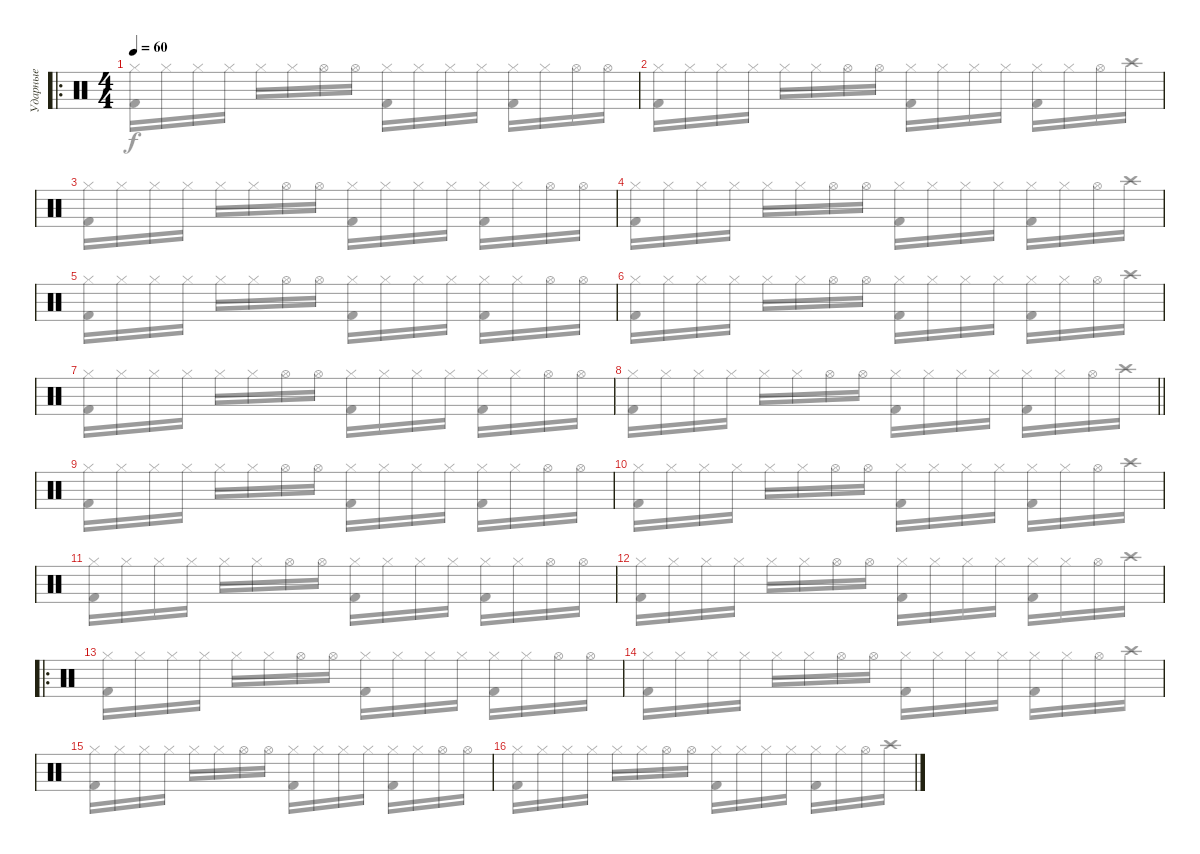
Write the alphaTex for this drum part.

\track ("Ударные" "Ударные") {instrument percussion}
\staff {score}
\articulation defaults
\voice
\ro
\ts (4 4)
\tempo 60
\clef neutral
\ks c
|
|
|
|
|
|
|
\barLineRight lightlight
|
|
|
|
|
\ro
|
|
|
\voice
\clef neutral
\ks c
("Hi-Hat (closed)" "Kick (hit) 2").16{dy f} "Hi-Hat (closed)".16 "Hi-Hat (closed)".16 "Hi-Hat (closed)".16 "Hi-Hat (closed)".16 "Hi-Hat (closed)".16 "Hi-Hat (open)".16 "Hi-Hat (open)".16 ("Hi-Hat (closed)" "Kick (hit) 2").16 "Hi-Hat (closed)".16 "Hi-Hat (closed)".16 "Hi-Hat (closed)".16 ("Hi-Hat (closed)" "Kick (hit) 2").16 "Hi-Hat (closed)".16 "Hi-Hat (open)".16 "Hi-Hat (open)".16 |
("Hi-Hat (closed)" "Kick (hit) 2").16 "Hi-Hat (closed)".16 "Hi-Hat (closed)".16 "Hi-Hat (closed)".16 "Hi-Hat (closed)".16 "Hi-Hat (closed)".16 "Hi-Hat (open)".16 "Hi-Hat (open)".16 ("Hi-Hat (closed)" "Kick (hit) 2").16 "Hi-Hat (closed)".16 "Hi-Hat (closed)".16 "Hi-Hat (closed)".16 ("Hi-Hat (closed)" "Kick (hit) 2").16 "Hi-Hat (closed)".16 "Hi-Hat (open)".16 "Crash high (hit)".16 |
("Hi-Hat (closed)" "Kick (hit) 2").16 "Hi-Hat (closed)".16 "Hi-Hat (closed)".16 "Hi-Hat (closed)".16 "Hi-Hat (closed)".16 "Hi-Hat (closed)".16 "Hi-Hat (open)".16 "Hi-Hat (open)".16 ("Hi-Hat (closed)" "Kick (hit) 2").16 "Hi-Hat (closed)".16 "Hi-Hat (closed)".16 "Hi-Hat (closed)".16 ("Hi-Hat (closed)" "Kick (hit) 2").16 "Hi-Hat (closed)".16 "Hi-Hat (open)".16 "Hi-Hat (open)".16 |
("Hi-Hat (closed)" "Kick (hit) 2").16 "Hi-Hat (closed)".16 "Hi-Hat (closed)".16 "Hi-Hat (closed)".16 "Hi-Hat (closed)".16 "Hi-Hat (closed)".16 "Hi-Hat (open)".16 "Hi-Hat (open)".16 ("Hi-Hat (closed)" "Kick (hit) 2").16 "Hi-Hat (closed)".16 "Hi-Hat (closed)".16 "Hi-Hat (closed)".16 ("Hi-Hat (closed)" "Kick (hit) 2").16 "Hi-Hat (closed)".16 "Hi-Hat (open)".16 "Crash high (hit)".16 |
("Hi-Hat (closed)" "Kick (hit) 2").16 "Hi-Hat (closed)".16 "Hi-Hat (closed)".16 "Hi-Hat (closed)".16 "Hi-Hat (closed)".16 "Hi-Hat (closed)".16 "Hi-Hat (open)".16 "Hi-Hat (open)".16 ("Hi-Hat (closed)" "Kick (hit) 2").16 "Hi-Hat (closed)".16 "Hi-Hat (closed)".16 "Hi-Hat (closed)".16 ("Hi-Hat (closed)" "Kick (hit) 2").16 "Hi-Hat (closed)".16 "Hi-Hat (open)".16 "Hi-Hat (open)".16 |
("Hi-Hat (closed)" "Kick (hit) 2").16 "Hi-Hat (closed)".16 "Hi-Hat (closed)".16 "Hi-Hat (closed)".16 "Hi-Hat (closed)".16 "Hi-Hat (closed)".16 "Hi-Hat (open)".16 "Hi-Hat (open)".16 ("Hi-Hat (closed)" "Kick (hit) 2").16 "Hi-Hat (closed)".16 "Hi-Hat (closed)".16 "Hi-Hat (closed)".16 ("Hi-Hat (closed)" "Kick (hit) 2").16 "Hi-Hat (closed)".16 "Hi-Hat (open)".16 "Crash high (hit)".16 |
("Hi-Hat (closed)" "Kick (hit) 2").16 "Hi-Hat (closed)".16 "Hi-Hat (closed)".16 "Hi-Hat (closed)".16 "Hi-Hat (closed)".16 "Hi-Hat (closed)".16 "Hi-Hat (open)".16 "Hi-Hat (open)".16 ("Hi-Hat (closed)" "Kick (hit) 2").16 "Hi-Hat (closed)".16 "Hi-Hat (closed)".16 "Hi-Hat (closed)".16 ("Hi-Hat (closed)" "Kick (hit) 2").16 "Hi-Hat (closed)".16 "Hi-Hat (open)".16 "Hi-Hat (open)".16 |
\barLineRight lightlight
("Hi-Hat (closed)" "Kick (hit) 2").16 "Hi-Hat (closed)".16 "Hi-Hat (closed)".16 "Hi-Hat (closed)".16 "Hi-Hat (closed)".16 "Hi-Hat (closed)".16 "Hi-Hat (open)".16 "Hi-Hat (open)".16 ("Hi-Hat (closed)" "Kick (hit) 2").16 "Hi-Hat (closed)".16 "Hi-Hat (closed)".16 "Hi-Hat (closed)".16 ("Hi-Hat (closed)" "Kick (hit) 2").16 "Hi-Hat (closed)".16 "Hi-Hat (open)".16 "Crash high (hit)".16 |
("Hi-Hat (closed)" "Kick (hit) 2").16 "Hi-Hat (closed)".16 "Hi-Hat (closed)".16 "Hi-Hat (closed)".16 "Hi-Hat (closed)".16 "Hi-Hat (closed)".16 "Hi-Hat (open)".16 "Hi-Hat (open)".16 ("Hi-Hat (closed)" "Kick (hit) 2").16 "Hi-Hat (closed)".16 "Hi-Hat (closed)".16 "Hi-Hat (closed)".16 ("Hi-Hat (closed)" "Kick (hit) 2").16 "Hi-Hat (closed)".16 "Hi-Hat (open)".16 "Hi-Hat (open)".16 |
("Hi-Hat (closed)" "Kick (hit) 2").16 "Hi-Hat (closed)".16 "Hi-Hat (closed)".16 "Hi-Hat (closed)".16 "Hi-Hat (closed)".16 "Hi-Hat (closed)".16 "Hi-Hat (open)".16 "Hi-Hat (open)".16 ("Hi-Hat (closed)" "Kick (hit) 2").16 "Hi-Hat (closed)".16 "Hi-Hat (closed)".16 "Hi-Hat (closed)".16 ("Hi-Hat (closed)" "Kick (hit) 2").16 "Hi-Hat (closed)".16 "Hi-Hat (open)".16 "Crash high (hit)".16 |
("Hi-Hat (closed)" "Kick (hit) 2").16 "Hi-Hat (closed)".16 "Hi-Hat (closed)".16 "Hi-Hat (closed)".16 "Hi-Hat (closed)".16 "Hi-Hat (closed)".16 "Hi-Hat (open)".16 "Hi-Hat (open)".16 ("Hi-Hat (closed)" "Kick (hit) 2").16 "Hi-Hat (closed)".16 "Hi-Hat (closed)".16 "Hi-Hat (closed)".16 ("Hi-Hat (closed)" "Kick (hit) 2").16 "Hi-Hat (closed)".16 "Hi-Hat (open)".16 "Hi-Hat (open)".16 |
("Hi-Hat (closed)" "Kick (hit) 2").16 "Hi-Hat (closed)".16 "Hi-Hat (closed)".16 "Hi-Hat (closed)".16 "Hi-Hat (closed)".16 "Hi-Hat (closed)".16 "Hi-Hat (open)".16 "Hi-Hat (open)".16 ("Hi-Hat (closed)" "Kick (hit) 2").16 "Hi-Hat (closed)".16 "Hi-Hat (closed)".16 "Hi-Hat (closed)".16 ("Hi-Hat (closed)" "Kick (hit) 2").16 "Hi-Hat (closed)".16 "Hi-Hat (open)".16 "Crash high (hit)".16 |
("Hi-Hat (closed)" "Kick (hit) 2").16 "Hi-Hat (closed)".16 "Hi-Hat (closed)".16 "Hi-Hat (closed)".16 "Hi-Hat (closed)".16 "Hi-Hat (closed)".16 "Hi-Hat (open)".16 "Hi-Hat (open)".16 ("Hi-Hat (closed)" "Kick (hit) 2").16 "Hi-Hat (closed)".16 "Hi-Hat (closed)".16 "Hi-Hat (closed)".16 ("Hi-Hat (closed)" "Kick (hit) 2").16 "Hi-Hat (closed)".16 "Hi-Hat (open)".16 "Hi-Hat (open)".16 |
("Hi-Hat (closed)" "Kick (hit) 2").16 "Hi-Hat (closed)".16 "Hi-Hat (closed)".16 "Hi-Hat (closed)".16 "Hi-Hat (closed)".16 "Hi-Hat (closed)".16 "Hi-Hat (open)".16 "Hi-Hat (open)".16 ("Hi-Hat (closed)" "Kick (hit) 2").16 "Hi-Hat (closed)".16 "Hi-Hat (closed)".16 "Hi-Hat (closed)".16 ("Hi-Hat (closed)" "Kick (hit) 2").16 "Hi-Hat (closed)".16 "Hi-Hat (open)".16 "Crash high (hit)".16 |
("Hi-Hat (closed)" "Kick (hit) 2").16 "Hi-Hat (closed)".16 "Hi-Hat (closed)".16 "Hi-Hat (closed)".16 "Hi-Hat (closed)".16 "Hi-Hat (closed)".16 "Hi-Hat (open)".16 "Hi-Hat (open)".16 ("Hi-Hat (closed)" "Kick (hit) 2").16 "Hi-Hat (closed)".16 "Hi-Hat (closed)".16 "Hi-Hat (closed)".16 ("Hi-Hat (closed)" "Kick (hit) 2").16 "Hi-Hat (closed)".16 "Hi-Hat (open)".16 "Hi-Hat (open)".16 |
("Hi-Hat (closed)" "Kick (hit) 2").16 "Hi-Hat (closed)".16 "Hi-Hat (closed)".16 "Hi-Hat (closed)".16 "Hi-Hat (closed)".16 "Hi-Hat (closed)".16 "Hi-Hat (open)".16 "Hi-Hat (open)".16 ("Hi-Hat (closed)" "Kick (hit) 2").16 "Hi-Hat (closed)".16 "Hi-Hat (closed)".16 "Hi-Hat (closed)".16 ("Hi-Hat (closed)" "Kick (hit) 2").16 "Hi-Hat (closed)".16 "Hi-Hat (open)".16 "Crash high (hit)".16
